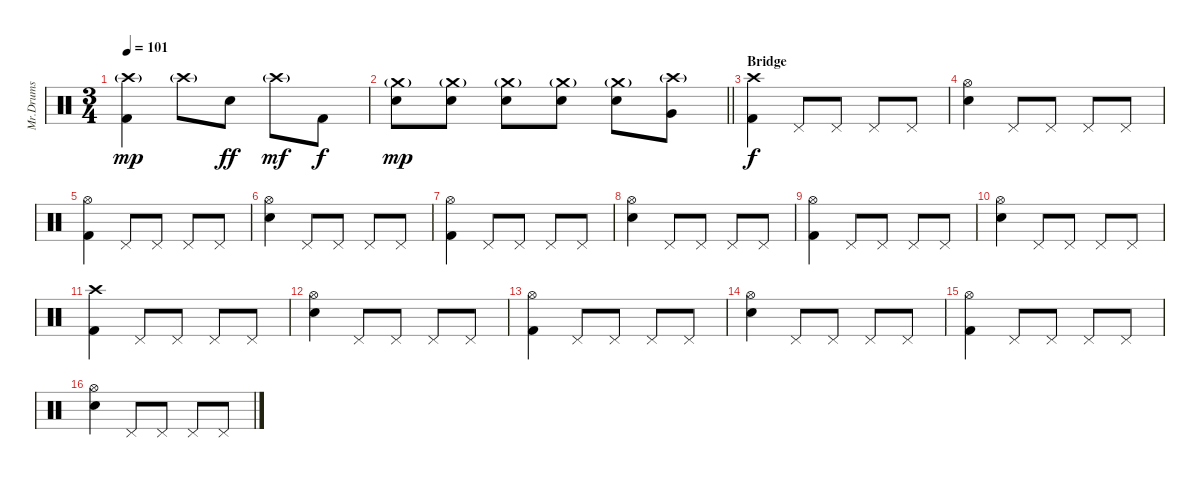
\track ("Mr.Drums" "Mr.Drums") {instrument percussion}
\staff {score}
\articulation defaults
\ts (3 4)
\tempo 101
\clef neutral
\ks c
("Crash high (hit)"{g} "Kick (hit) 2").4{dy mp} "Crash high (hit)"{g}.8 "Electric Snare (hit)".8{dy ff} "Crash high (hit)"{g}.8{dy mf} "Kick (hit) 2".8{dy f} |
\barLineRight lightlight
("Crash medium (hit)"{g} "Electric Snare (hit)").8{dy mp} ("Crash medium (hit)"{g} "Electric Snare (hit)").8 ("Crash medium (hit)"{g} "Electric Snare (hit)").8 ("Crash medium (hit)"{g} "Electric Snare (hit)").8 ("Crash medium (hit)"{g} "Electric Snare (hit)").8 ("Crash high (hit)"{g} "Very Low Tom (hit)").8 |
\section ("" "Bridge")
("Crash high (hit)" "Kick (hit) 2").4{dy f} "Pedal Hi-Hat (hit)".8 "Pedal Hi-Hat (hit)".8 "Pedal Hi-Hat (hit)".8 "Pedal Hi-Hat (hit)".8 |
("Hi-Hat (open)" "Electric Snare (hit)").4 "Pedal Hi-Hat (hit)".8 "Pedal Hi-Hat (hit)".8 "Pedal Hi-Hat (hit)".8 "Pedal Hi-Hat (hit)".8 |
("Hi-Hat (open)" "Kick (hit) 2").4 "Pedal Hi-Hat (hit)".8 "Pedal Hi-Hat (hit)".8 "Pedal Hi-Hat (hit)".8 "Pedal Hi-Hat (hit)".8 |
("Hi-Hat (open)" "Electric Snare (hit)").4 "Pedal Hi-Hat (hit)".8 "Pedal Hi-Hat (hit)".8 "Pedal Hi-Hat (hit)".8 "Pedal Hi-Hat (hit)".8 |
("Hi-Hat (open)" "Kick (hit) 2").4 "Pedal Hi-Hat (hit)".8 "Pedal Hi-Hat (hit)".8 "Pedal Hi-Hat (hit)".8 "Pedal Hi-Hat (hit)".8 |
("Hi-Hat (open)" "Electric Snare (hit)").4 "Pedal Hi-Hat (hit)".8 "Pedal Hi-Hat (hit)".8 "Pedal Hi-Hat (hit)".8 "Pedal Hi-Hat (hit)".8 |
("Hi-Hat (open)" "Kick (hit) 2").4 "Pedal Hi-Hat (hit)".8 "Pedal Hi-Hat (hit)".8 "Pedal Hi-Hat (hit)".8 "Pedal Hi-Hat (hit)".8 |
("Hi-Hat (open)" "Electric Snare (hit)").4 "Pedal Hi-Hat (hit)".8 "Pedal Hi-Hat (hit)".8 "Pedal Hi-Hat (hit)".8 "Pedal Hi-Hat (hit)".8 |
("Crash high (hit)" "Kick (hit) 2").4 "Pedal Hi-Hat (hit)".8 "Pedal Hi-Hat (hit)".8 "Pedal Hi-Hat (hit)".8 "Pedal Hi-Hat (hit)".8 |
("Hi-Hat (open)" "Electric Snare (hit)").4 "Pedal Hi-Hat (hit)".8 "Pedal Hi-Hat (hit)".8 "Pedal Hi-Hat (hit)".8 "Pedal Hi-Hat (hit)".8 |
("Hi-Hat (open)" "Kick (hit) 2").4 "Pedal Hi-Hat (hit)".8 "Pedal Hi-Hat (hit)".8 "Pedal Hi-Hat (hit)".8 "Pedal Hi-Hat (hit)".8 |
("Hi-Hat (open)" "Electric Snare (hit)").4 "Pedal Hi-Hat (hit)".8 "Pedal Hi-Hat (hit)".8 "Pedal Hi-Hat (hit)".8 "Pedal Hi-Hat (hit)".8 |
("Hi-Hat (open)" "Kick (hit) 2").4 "Pedal Hi-Hat (hit)".8 "Pedal Hi-Hat (hit)".8 "Pedal Hi-Hat (hit)".8 "Pedal Hi-Hat (hit)".8 |
("Hi-Hat (open)" "Electric Snare (hit)").4 "Pedal Hi-Hat (hit)".8 "Pedal Hi-Hat (hit)".8 "Pedal Hi-Hat (hit)".8 "Pedal Hi-Hat (hit)".8
